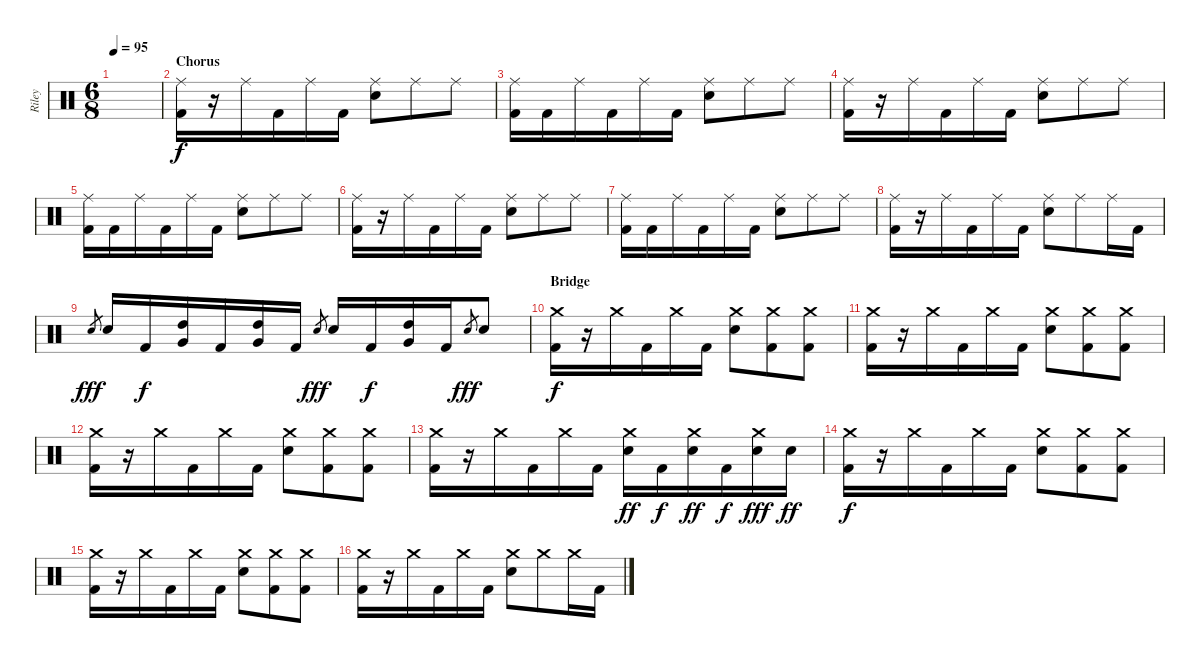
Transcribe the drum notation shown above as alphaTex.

\track ("Riley" "Riley") {instrument percussion}
\staff {score}
\articulation defaults
\ts (6 8)
\tempo 95
\clef neutral
\ks c
|
\section ("" "Chorus")
("Ride (middle)" "Kick (hit) 2").16 r.16 "Ride (middle)".16 "Kick (hit) 2".16 "Ride (middle)".16 "Kick (hit) 2".16 ("Ride (middle)" "Electric Snare (hit)").8 "Ride (middle)".8 "Ride (middle)".8 |
("Ride (middle)" "Kick (hit) 2").16 "Kick (hit) 2".16 "Ride (middle)".16 "Kick (hit) 2".16 "Ride (middle)".16 "Kick (hit) 2".16 ("Ride (middle)" "Electric Snare (hit)").8 "Ride (middle)".8 "Ride (middle)".8 |
("Ride (middle)" "Kick (hit) 2").16 r.16 "Ride (middle)".16 "Kick (hit) 2".16 "Ride (middle)".16 "Kick (hit) 2".16 ("Ride (middle)" "Electric Snare (hit)").8 "Ride (middle)".8 "Ride (middle)".8 |
("Ride (middle)" "Kick (hit) 2").16 "Kick (hit) 2".16 "Ride (middle)".16 "Kick (hit) 2".16 "Ride (middle)".16 "Kick (hit) 2".16 ("Ride (middle)" "Electric Snare (hit)").8 "Ride (middle)".8 "Ride (middle)".8 |
("Ride (middle)" "Kick (hit) 2").16 r.16 "Ride (middle)".16 "Kick (hit) 2".16 "Ride (middle)".16 "Kick (hit) 2".16 ("Ride (middle)" "Electric Snare (hit)").8 "Ride (middle)".8 "Ride (middle)".8 |
("Ride (middle)" "Kick (hit) 2").16 "Kick (hit) 2".16 "Ride (middle)".16 "Kick (hit) 2".16 "Ride (middle)".16 "Kick (hit) 2".16 ("Ride (middle)" "Electric Snare (hit)").8 "Ride (middle)".8 "Ride (middle)".8 |
("Ride (middle)" "Kick (hit) 2").16 r.16 "Ride (middle)".16 "Kick (hit) 2".16 "Ride (middle)".16 "Kick (hit) 2".16 ("Ride (middle)" "Electric Snare (hit)").8 "Ride (middle)".8 "Ride (middle)".16 "Kick (hit) 2".16 |
"Electric Snare (hit)".8{gr dy fff} "Electric Snare (hit)".16 "Kick (hit) 2".16{dy f} ("High Tom (hit)" "Very Low Tom (hit)").16 "Kick (hit) 2".16 ("High Tom (hit)" "Very Low Tom (hit)").16 "Kick (hit) 2".16 "Electric Snare (hit)".8{gr dy fff} "Electric Snare (hit)".16 "Kick (hit) 2".16{dy f} ("High Tom (hit)" "Very Low Tom (hit)").16 "Kick (hit) 2".16 "Electric Snare (hit)".8{gr dy fff} "Electric Snare (hit)".8 |
\section ("" "Bridge")
("Crash medium (hit)" "Kick (hit) 2").16{dy f} r.16 "Crash medium (hit)".16 "Kick (hit) 2".16 "Crash medium (hit)".16 "Kick (hit) 2".16 ("Crash medium (hit)" "Electric Snare (hit)").8 ("Crash medium (hit)" "Kick (hit) 2").8 ("Crash medium (hit)" "Kick (hit) 2").8 |
("Crash medium (hit)" "Kick (hit) 2").16 r.16 "Crash medium (hit)".16 "Kick (hit) 2".16 "Crash medium (hit)".16 "Kick (hit) 2".16 ("Crash medium (hit)" "Electric Snare (hit)").8 ("Crash medium (hit)" "Kick (hit) 2").8 ("Crash medium (hit)" "Kick (hit) 2").8 |
("Crash medium (hit)" "Kick (hit) 2").16 r.16 "Crash medium (hit)".16 "Kick (hit) 2".16 "Crash medium (hit)".16 "Kick (hit) 2".16 ("Crash medium (hit)" "Electric Snare (hit)").8 ("Crash medium (hit)" "Kick (hit) 2").8 ("Crash medium (hit)" "Kick (hit) 2").8 |
("Crash medium (hit)" "Kick (hit) 2").16 r.16 "Crash medium (hit)".16 "Kick (hit) 2".16 "Crash medium (hit)".16 "Kick (hit) 2".16 ("Crash medium (hit)" "Electric Snare (hit)").16{dy ff} "Kick (hit) 2".16{dy f} ("Crash medium (hit)" "Electric Snare (hit)").16{dy ff} "Kick (hit) 2".16{dy f} ("Crash medium (hit)" "Electric Snare (hit)").16{dy fff} "Electric Snare (hit)".16{dy ff} |
("Crash medium (hit)" "Kick (hit) 2").16{dy f} r.16 "Crash medium (hit)".16 "Kick (hit) 2".16 "Crash medium (hit)".16 "Kick (hit) 2".16 ("Crash medium (hit)" "Electric Snare (hit)").8 ("Crash medium (hit)" "Kick (hit) 2").8 ("Crash medium (hit)" "Kick (hit) 2").8 |
("Crash medium (hit)" "Kick (hit) 2").16 r.16 "Crash medium (hit)".16 "Kick (hit) 2".16 "Crash medium (hit)".16 "Kick (hit) 2".16 ("Crash medium (hit)" "Electric Snare (hit)").8 ("Crash medium (hit)" "Kick (hit) 2").8 ("Crash medium (hit)" "Kick (hit) 2").8 |
("Crash medium (hit)" "Kick (hit) 2").16 r.16 "Crash medium (hit)".16 "Kick (hit) 2".16 "Crash medium (hit)".16 "Kick (hit) 2".16 ("Crash medium (hit)" "Electric Snare (hit)").8 "Crash medium (hit)".8 "Crash medium (hit)".16 "Kick (hit) 2".16
